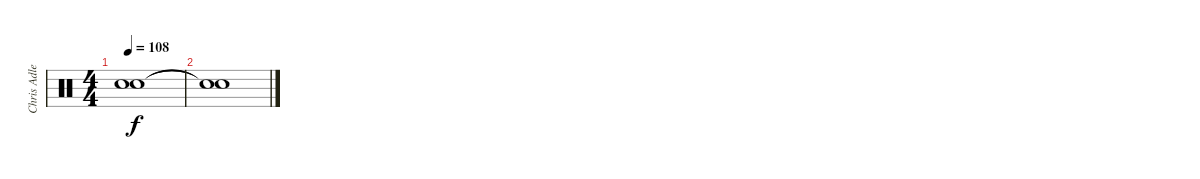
\track ("Chris Adler" "Chris Adle") {instrument percussion}
\staff {score}
\articulation defaults
\ts (4 4)
\tempo 108
\clef neutral
\ks c
("Snare (hit)"{t} "Snare (hit)"{t}).1{dy f} |
("Snare (hit)"{t} "Snare (hit)"{t}).1
